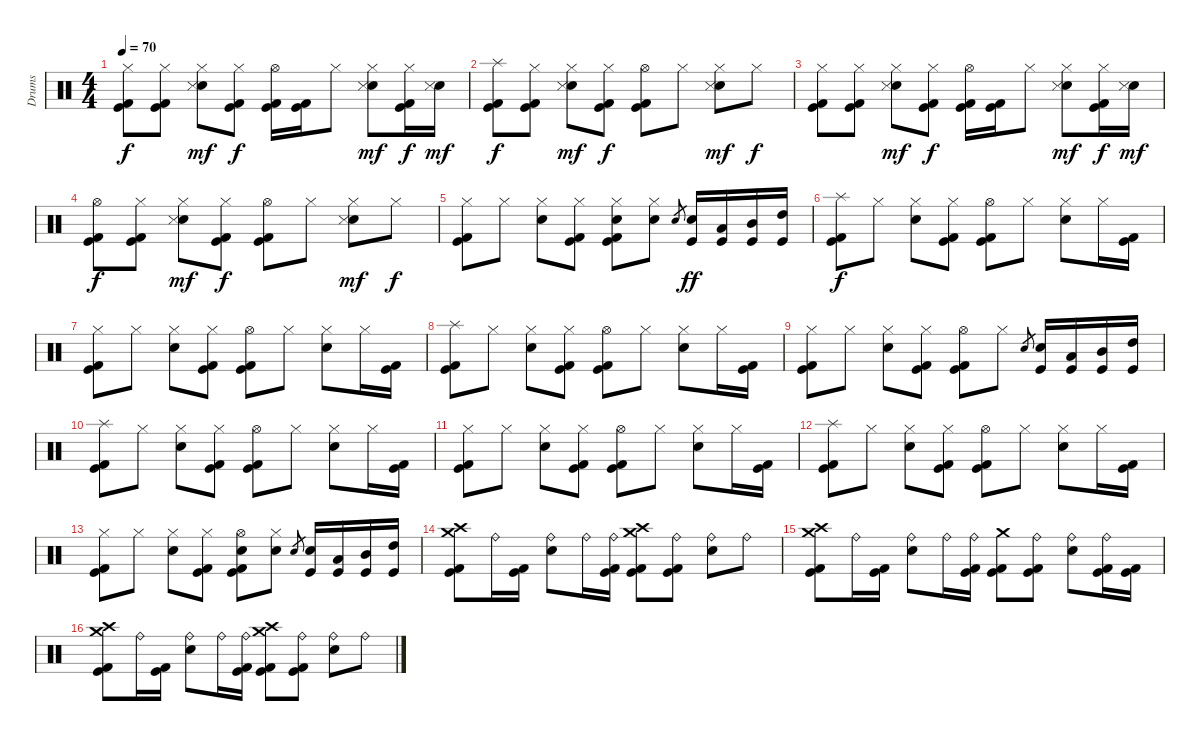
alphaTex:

\track ("Drums" "Drums") {instrument percussion}
\staff {score}
\articulation defaults
\ts (4 4)
\tempo 70
\clef neutral
\ks c
("Hi-Hat (closed)" "Kick (hit) 2" "Kick (hit)").8{dy f} ("Hi-Hat (closed)" "Kick (hit) 2" "Kick (hit)").8 ("Hi-Hat (closed)" "Electric Snare (hit)" "Snare (side stick) 3").8{dy mf} ("Hi-Hat (closed)" "Kick (hit) 2" "Kick (hit)").8{dy f} ("Hi-Hat (open)" "Kick (hit) 2" "Kick (hit)").16 ("Kick (hit)" "Kick (hit) 2").16 "Hi-Hat (closed)".8 ("Hi-Hat (closed)" "Electric Snare (hit)" "Snare (side stick) 3").8{dy mf} ("Hi-Hat (closed)" "Kick (hit) 2" "Kick (hit)").16{dy f} ("Electric Snare (hit)" "Snare (side stick) 3").16{dy mf} |
("Splash (hit)" "Kick (hit) 2" "Kick (hit)").8{dy f} ("Hi-Hat (closed)" "Kick (hit) 2" "Kick (hit)").8 ("Hi-Hat (closed)" "Electric Snare (hit)" "Snare (side stick) 3").8{dy mf} ("Hi-Hat (closed)" "Kick (hit) 2" "Kick (hit)").8{dy f} ("Hi-Hat (open)" "Kick (hit) 2" "Kick (hit)").8 "Hi-Hat (closed)".8 ("Hi-Hat (closed)" "Electric Snare (hit)" "Snare (side stick) 3").8{dy mf} "Hi-Hat (closed)".8{dy f} |
("Hi-Hat (closed)" "Kick (hit) 2" "Kick (hit)").8 ("Hi-Hat (closed)" "Kick (hit) 2" "Kick (hit)").8 ("Hi-Hat (closed)" "Electric Snare (hit)" "Snare (side stick) 3").8{dy mf} ("Hi-Hat (closed)" "Kick (hit) 2" "Kick (hit)").8{dy f} ("Hi-Hat (open)" "Kick (hit) 2" "Kick (hit)").16 ("Kick (hit)" "Kick (hit) 2").16 "Hi-Hat (closed)".8 ("Hi-Hat (closed)" "Electric Snare (hit)" "Snare (side stick) 3").8{dy mf} ("Hi-Hat (closed)" "Kick (hit) 2" "Kick (hit)").16{dy f} ("Electric Snare (hit)" "Snare (side stick) 3").16{dy mf} |
("Hi-Hat (open)" "Kick (hit) 2" "Kick (hit)").8{dy f} ("Hi-Hat (closed)" "Kick (hit) 2" "Kick (hit)").8 ("Hi-Hat (closed)" "Electric Snare (hit)" "Snare (side stick) 3").8{dy mf} ("Hi-Hat (closed)" "Kick (hit) 2" "Kick (hit)").8{dy f} ("Hi-Hat (open)" "Kick (hit) 2" "Kick (hit)").8 "Hi-Hat (closed)".8 ("Hi-Hat (closed)" "Electric Snare (hit)" "Snare (side stick) 3").8{dy mf} "Hi-Hat (closed)".8{dy f} |
("Hi-Hat (closed)" "Kick (hit) 2" "Kick (hit)").8 "Hi-Hat (closed)".8 ("Hi-Hat (closed)" "Electric Snare (hit)").8 ("Hi-Hat (closed)" "Kick (hit) 2" "Kick (hit)").8 ("Hi-Hat (closed)" "Electric Snare (hit)" "Kick (hit) 2" "Kick (hit)").8 ("Hi-Hat (closed)" "Electric Snare (hit)").8 "Electric Snare (hit)".8{gr} ("Electric Snare (hit)" "Kick (hit)").16{dy ff} ("Low Tom (hit)" "Kick (hit)").16 ("Mid Tom (hit)" "Kick (hit)").16 ("High Tom (hit)" "Kick (hit)").16 |
("Splash (hit)" "Kick (hit) 2" "Kick (hit)").8{dy f} "Hi-Hat (closed)".8 ("Hi-Hat (closed)" "Electric Snare (hit)").8 ("Hi-Hat (closed)" "Kick (hit) 2" "Kick (hit)").8 ("Hi-Hat (open)" "Kick (hit) 2" "Kick (hit)").8 "Hi-Hat (closed)".8 ("Hi-Hat (closed)" "Electric Snare (hit)").8 "Hi-Hat (closed)".16 ("Kick (hit) 2" "Kick (hit)").16 |
("Hi-Hat (closed)" "Kick (hit) 2" "Kick (hit)").8 "Hi-Hat (closed)".8 ("Hi-Hat (closed)" "Electric Snare (hit)").8 ("Hi-Hat (closed)" "Kick (hit) 2" "Kick (hit)").8 ("Hi-Hat (open)" "Kick (hit) 2" "Kick (hit)").8 "Hi-Hat (closed)".8 ("Hi-Hat (closed)" "Electric Snare (hit)").8 "Hi-Hat (closed)".16 ("Kick (hit) 2" "Kick (hit)").16 |
("Splash (hit)" "Kick (hit) 2" "Kick (hit)").8 "Hi-Hat (closed)".8 ("Hi-Hat (closed)" "Electric Snare (hit)").8 ("Hi-Hat (closed)" "Kick (hit) 2" "Kick (hit)").8 ("Hi-Hat (open)" "Kick (hit) 2" "Kick (hit)").8 "Hi-Hat (closed)".8 ("Hi-Hat (closed)" "Electric Snare (hit)").8 "Hi-Hat (closed)".16 ("Kick (hit) 2" "Kick (hit)").16 |
("Hi-Hat (closed)" "Kick (hit) 2" "Kick (hit)").8 "Hi-Hat (closed)".8 ("Hi-Hat (closed)" "Electric Snare (hit)").8 ("Hi-Hat (closed)" "Kick (hit) 2" "Kick (hit)").8 ("Hi-Hat (open)" "Kick (hit) 2" "Kick (hit)").8 "Hi-Hat (closed)".8 "Electric Snare (hit)".8{gr} ("Electric Snare (hit)" "Kick (hit)").16 ("Low Tom (hit)" "Kick (hit)").16 ("Mid Tom (hit)" "Kick (hit)").16 ("High Tom (hit)" "Kick (hit)").16 |
("Splash (hit)" "Kick (hit) 2" "Kick (hit)").8 "Hi-Hat (closed)".8 ("Hi-Hat (closed)" "Electric Snare (hit)").8 ("Hi-Hat (closed)" "Kick (hit) 2" "Kick (hit)").8 ("Hi-Hat (open)" "Kick (hit) 2" "Kick (hit)").8 "Hi-Hat (closed)".8 ("Hi-Hat (closed)" "Electric Snare (hit)").8 "Hi-Hat (closed)".16 ("Kick (hit) 2" "Kick (hit)").16 |
("Hi-Hat (closed)" "Kick (hit) 2" "Kick (hit)").8 "Hi-Hat (closed)".8 ("Hi-Hat (closed)" "Electric Snare (hit)").8 ("Hi-Hat (closed)" "Kick (hit) 2" "Kick (hit)").8 ("Hi-Hat (open)" "Kick (hit) 2" "Kick (hit)").8 "Hi-Hat (closed)".8 ("Hi-Hat (closed)" "Electric Snare (hit)").8 "Hi-Hat (closed)".16 ("Kick (hit) 2" "Kick (hit)").16 |
("Splash (hit)" "Kick (hit) 2" "Kick (hit)").8 "Hi-Hat (closed)".8 ("Hi-Hat (closed)" "Electric Snare (hit)").8 ("Hi-Hat (closed)" "Kick (hit) 2" "Kick (hit)").8 ("Hi-Hat (open)" "Kick (hit) 2" "Kick (hit)").8 "Hi-Hat (closed)".8 ("Hi-Hat (closed)" "Electric Snare (hit)").8 "Hi-Hat (closed)".16 ("Kick (hit) 2" "Kick (hit)").16 |
("Hi-Hat (closed)" "Kick (hit) 2" "Kick (hit)").8 "Hi-Hat (closed)".8 ("Hi-Hat (closed)" "Electric Snare (hit)").8 ("Hi-Hat (closed)" "Kick (hit) 2" "Kick (hit)").8 ("Hi-Hat (open)" "Electric Snare (hit)" "Kick (hit) 2" "Kick (hit)").8 ("Hi-Hat (closed)" "Electric Snare (hit)").8 "Electric Snare (hit)".8{gr} ("Electric Snare (hit)" "Kick (hit)").16 ("Low Tom (hit)" "Kick (hit)").16 ("Mid Tom (hit)" "Kick (hit)").16 ("High Tom (hit)" "Kick (hit)").16 |
("Crash medium (hit)" "Crash high (hit)" "Kick (hit) 2" "Kick (hit)").8 "Ride (bell)".16 ("Kick (hit) 2" "Kick (hit)").16 ("Ride (bell)" "Electric Snare (hit)").8 "Ride (bell)".16 ("Ride (bell)" "Kick (hit) 2" "Kick (hit)").16 ("Crash medium (hit)" "Crash high (hit)" "Kick (hit) 2" "Kick (hit)").8 ("Ride (bell)" "Kick (hit) 2" "Kick (hit)").8 ("Ride (bell)" "Electric Snare (hit)").8 "Ride (bell)".8 |
("Crash medium (hit)" "Crash high (hit)" "Kick (hit) 2" "Kick (hit)").8 "Ride (bell)".16 ("Kick (hit) 2" "Kick (hit)").16 ("Ride (bell)" "Electric Snare (hit)").8 "Ride (bell)".16 ("Ride (bell)" "Kick (hit) 2" "Kick (hit)").16 ("Crash medium (hit)" "Kick (hit) 2" "Kick (hit)").8 ("Ride (bell)" "Kick (hit) 2" "Kick (hit)").8 ("Ride (bell)" "Electric Snare (hit)").8 ("Ride (bell)" "Kick (hit) 2" "Kick (hit)").16 ("Kick (hit) 2" "Kick (hit)").16 |
("Crash medium (hit)" "Crash high (hit)" "Kick (hit) 2" "Kick (hit)").8 "Ride (bell)".16 ("Kick (hit) 2" "Kick (hit)").16 ("Ride (bell)" "Electric Snare (hit)").8 "Ride (bell)".16 ("Ride (bell)" "Kick (hit) 2" "Kick (hit)").16 ("Crash medium (hit)" "Crash high (hit)" "Kick (hit) 2" "Kick (hit)").8 ("Ride (bell)" "Kick (hit) 2" "Kick (hit)").8 ("Ride (bell)" "Electric Snare (hit)").8 "Ride (bell)".8
